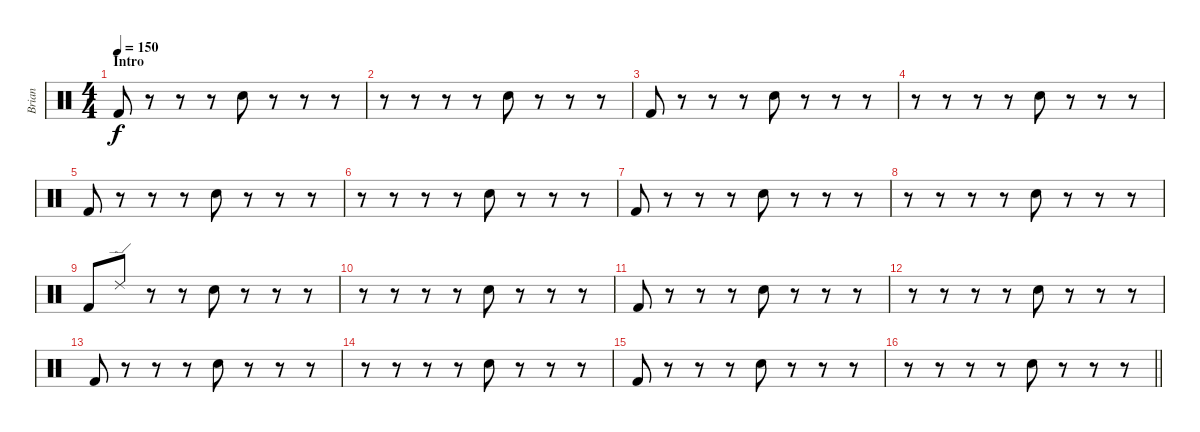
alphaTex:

\track ("Brian" "Brian") {instrument percussion}
\staff {score}
\articulation defaults
\ts (4 4)
\section ("" "Intro")
\tempo 150
\clef neutral
\ks c "Kick (hit) 2".8{dy f}
r.8 r.8 r.8 "Snare (hit) 2".8 r.8 r.8 r.8 |
r.8 r.8 r.8 r.8 "Snare (hit) 2".8 r.8 r.8 r.8 |
"Kick (hit) 2".8 r.8 r.8 r.8 "Snare (hit) 2".8 r.8 r.8 r.8 |
r.8 r.8 r.8 r.8 "Snare (hit) 2".8 r.8 r.8 r.8 |
"Kick (hit) 2".8 r.8 r.8 r.8 "Snare (hit) 2".8 r.8 r.8 r.8 |
r.8 r.8 r.8 r.8 "Snare (hit) 2".8 r.8 r.8 r.8 |
"Kick (hit) 2".8 r.8 r.8 r.8 "Snare (hit) 2".8 r.8 r.8 r.8 |
r.8 r.8 r.8 r.8 "Snare (hit) 2".8 r.8 r.8 r.8 |
"Kick (hit) 2".8 "Ride (edge) 2".8 r.8 r.8 "Snare (hit) 2".8 r.8 r.8 r.8 |
r.8 r.8 r.8 r.8 "Snare (hit) 2".8 r.8 r.8 r.8 |
"Kick (hit) 2".8 r.8 r.8 r.8 "Snare (hit) 2".8 r.8 r.8 r.8 |
r.8 r.8 r.8 r.8 "Snare (hit) 2".8 r.8 r.8 r.8 |
"Kick (hit) 2".8 r.8 r.8 r.8 "Snare (hit) 2".8 r.8 r.8 r.8 |
r.8 r.8 r.8 r.8 "Snare (hit) 2".8 r.8 r.8 r.8 |
"Kick (hit) 2".8 r.8 r.8 r.8 "Snare (hit) 2".8 r.8 r.8 r.8 |
\barLineRight lightlight
r.8 r.8 r.8 r.8 "Snare (hit) 2".8 r.8 r.8 r.8
